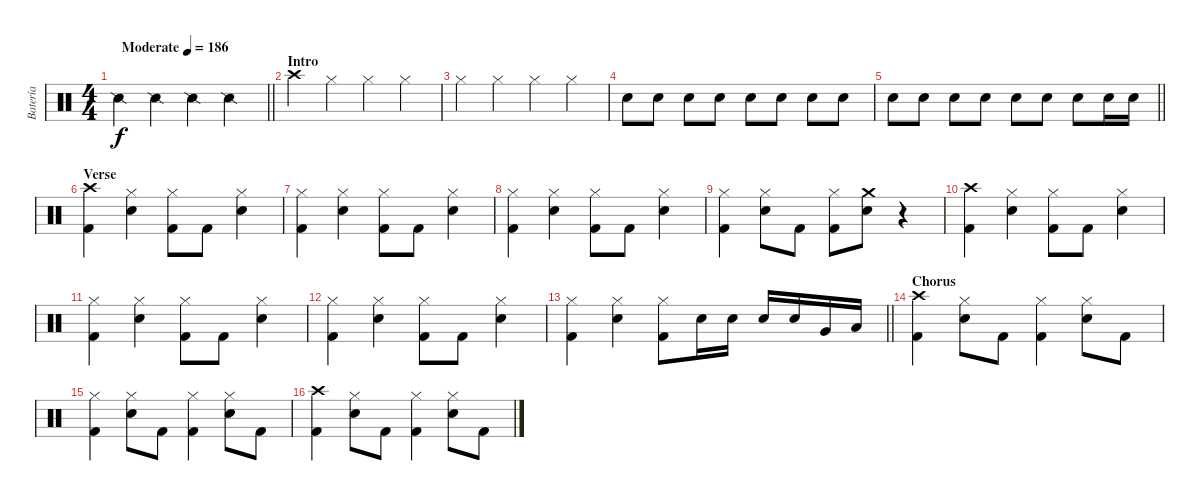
\track ("Batería" "Batería") {instrument percussion}
\staff {score}
\articulation defaults
\ts (4 4)
\tempo (186 "Moderate")
\clef neutral
\barLineRight lightlight
\ks c "Snare (side stick) 2".4{dy f} "Snare (side stick) 2".4 "Snare (side stick) 2".4 "Snare (side stick) 2".4
|
\section ("" "Intro")
"Crash high (hit)".4 "Hi-Hat (closed)".4 "Hi-Hat (closed)".4 "Hi-Hat (closed)".4 |
"Hi-Hat (closed)".4 "Hi-Hat (closed)".4 "Hi-Hat (closed)".4 "Hi-Hat (closed)".4 |
"Snare (hit) 2".8 "Snare (hit) 2".8 "Snare (hit) 2".8 "Snare (hit) 2".8 "Snare (hit) 2".8 "Snare (hit) 2".8 "Snare (hit) 2".8 "Snare (hit) 2".8 |
\barLineRight lightlight "Snare (hit) 2".8 "Snare (hit) 2".8 "Snare (hit) 2".8 "Snare (hit) 2".8 "Snare (hit) 2".8 "Snare (hit) 2".8 "Snare (hit) 2".8 "Snare (hit) 2".16 "Snare (hit) 2".16
|
\section ("" "Verse")
("Crash high (hit)" "Kick (hit) 2").4 ("Hi-Hat (closed)" "Snare (hit) 2").4 ("Hi-Hat (closed)" "Kick (hit) 2").8 "Kick (hit) 2".8 ("Hi-Hat (closed)" "Snare (hit) 2").4 |
("Hi-Hat (closed)" "Kick (hit) 2").4 ("Hi-Hat (closed)" "Snare (hit) 2").4 ("Hi-Hat (closed)" "Kick (hit) 2").8 "Kick (hit) 2".8 ("Hi-Hat (closed)" "Snare (hit) 2").4 |
("Hi-Hat (closed)" "Kick (hit) 2").4 ("Hi-Hat (closed)" "Snare (hit) 2").4 ("Hi-Hat (closed)" "Kick (hit) 2").8 "Kick (hit) 2".8 ("Hi-Hat (closed)" "Snare (hit) 2").4 |
("Hi-Hat (closed)" "Kick (hit) 2").4 ("Hi-Hat (closed)" "Snare (hit) 2").8 "Kick (hit) 2".8 ("Hi-Hat (closed)" "Kick (hit) 2").8 ("Crash medium (hit)" "Snare (hit) 2").8 r.4 |
("Crash high (hit)" "Kick (hit) 2").4 ("Hi-Hat (closed)" "Snare (hit) 2").4 ("Hi-Hat (closed)" "Kick (hit) 2").8 "Kick (hit) 2".8 ("Hi-Hat (closed)" "Snare (hit) 2").4 |
("Hi-Hat (closed)" "Kick (hit) 2").4 ("Hi-Hat (closed)" "Snare (hit) 2").4 ("Hi-Hat (closed)" "Kick (hit) 2").8 "Kick (hit) 2".8 ("Hi-Hat (closed)" "Snare (hit) 2").4 |
("Hi-Hat (closed)" "Kick (hit) 2").4 ("Hi-Hat (closed)" "Snare (hit) 2").4 ("Hi-Hat (closed)" "Kick (hit) 2").8 "Kick (hit) 2".8 ("Hi-Hat (closed)" "Snare (hit) 2").4 |
\barLineRight lightlight
("Hi-Hat (closed)" "Kick (hit) 2").4 ("Hi-Hat (closed)" "Snare (hit) 2").4 ("Hi-Hat (closed)" "Kick (hit) 2").8 "Snare (hit) 2".16 "Snare (hit) 2".16 "Snare (hit) 2".16 "Snare (hit) 2".16 "Very Low Tom (hit)".16 "Low Floor Tom (hit)".16 |
\section ("" "Chorus")
("Crash high (hit)" "Kick (hit) 2").4 ("Hi-Hat (closed)" "Snare (hit) 2").8 "Kick (hit) 2".8 ("Hi-Hat (closed)" "Kick (hit) 2").4 ("Hi-Hat (closed)" "Snare (hit) 2").8 "Kick (hit) 2".8 |
("Hi-Hat (closed)" "Kick (hit) 2").4 ("Hi-Hat (closed)" "Snare (hit) 2").8 "Kick (hit) 2".8 ("Hi-Hat (closed)" "Kick (hit) 2").4 ("Hi-Hat (closed)" "Snare (hit) 2").8 "Kick (hit) 2".8 |
("Crash high (hit)" "Kick (hit) 2").4 ("Hi-Hat (closed)" "Snare (hit) 2").8 "Kick (hit) 2".8 ("Hi-Hat (closed)" "Kick (hit) 2").4 ("Hi-Hat (closed)" "Snare (hit) 2").8 "Kick (hit) 2".8
